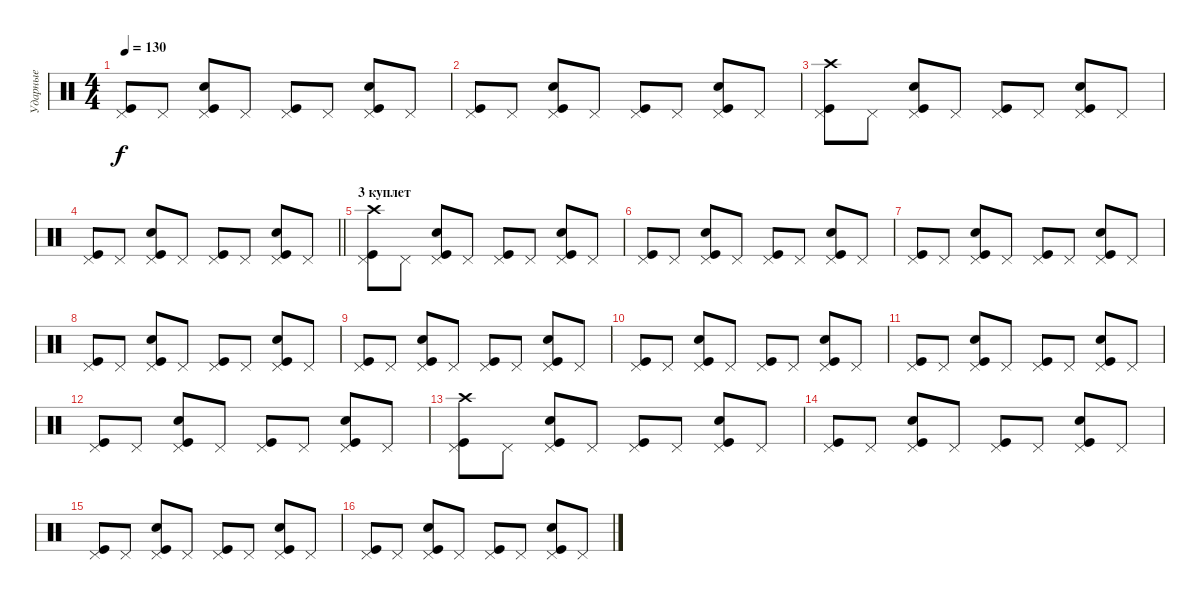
\track ("Ударные" "Ударные") {instrument percussion}
\staff {score}
\articulation defaults
\ts (4 4)
\tempo 130
\clef neutral
\ks c
("Pedal Hi-Hat (hit)" "Kick (hit)").8{dy f} "Pedal Hi-Hat (hit)".8 ("Pedal Hi-Hat (hit)" "Kick (hit)" "Snare (hit) 2").8 "Pedal Hi-Hat (hit)".8 ("Pedal Hi-Hat (hit)" "Kick (hit)").8 "Pedal Hi-Hat (hit)".8 ("Pedal Hi-Hat (hit)" "Kick (hit)" "Snare (hit) 2").8 "Pedal Hi-Hat (hit)".8 |
("Pedal Hi-Hat (hit)" "Kick (hit)").8 "Pedal Hi-Hat (hit)".8 ("Pedal Hi-Hat (hit)" "Kick (hit)" "Snare (hit) 2").8 "Pedal Hi-Hat (hit)".8 ("Pedal Hi-Hat (hit)" "Kick (hit)").8 "Pedal Hi-Hat (hit)".8 ("Pedal Hi-Hat (hit)" "Kick (hit)" "Snare (hit) 2").8 "Pedal Hi-Hat (hit)".8 |
("Pedal Hi-Hat (hit)" "Kick (hit)" "Crash high (hit)").8 "Pedal Hi-Hat (hit)".8 ("Pedal Hi-Hat (hit)" "Kick (hit)" "Snare (hit) 2").8 "Pedal Hi-Hat (hit)".8 ("Pedal Hi-Hat (hit)" "Kick (hit)").8 "Pedal Hi-Hat (hit)".8 ("Pedal Hi-Hat (hit)" "Kick (hit)" "Snare (hit) 2").8 "Pedal Hi-Hat (hit)".8 |
\barLineRight lightlight
("Pedal Hi-Hat (hit)" "Kick (hit)").8 "Pedal Hi-Hat (hit)".8 ("Pedal Hi-Hat (hit)" "Kick (hit)" "Snare (hit) 2").8 "Pedal Hi-Hat (hit)".8 ("Pedal Hi-Hat (hit)" "Kick (hit)").8 "Pedal Hi-Hat (hit)".8 ("Pedal Hi-Hat (hit)" "Kick (hit)" "Snare (hit) 2").8 "Pedal Hi-Hat (hit)".8 |
\section ("" "3 куплет")
("Pedal Hi-Hat (hit)" "Kick (hit)" "Crash high (hit)").8 "Pedal Hi-Hat (hit)".8 ("Pedal Hi-Hat (hit)" "Kick (hit)" "Snare (hit) 2").8 "Pedal Hi-Hat (hit)".8 ("Pedal Hi-Hat (hit)" "Kick (hit)").8 "Pedal Hi-Hat (hit)".8 ("Pedal Hi-Hat (hit)" "Kick (hit)" "Snare (hit) 2").8 "Pedal Hi-Hat (hit)".8 |
("Pedal Hi-Hat (hit)" "Kick (hit)").8 "Pedal Hi-Hat (hit)".8 ("Pedal Hi-Hat (hit)" "Kick (hit)" "Snare (hit) 2").8 "Pedal Hi-Hat (hit)".8 ("Pedal Hi-Hat (hit)" "Kick (hit)").8 "Pedal Hi-Hat (hit)".8 ("Pedal Hi-Hat (hit)" "Kick (hit)" "Snare (hit) 2").8 "Pedal Hi-Hat (hit)".8 |
("Pedal Hi-Hat (hit)" "Kick (hit)").8 "Pedal Hi-Hat (hit)".8 ("Pedal Hi-Hat (hit)" "Kick (hit)" "Snare (hit) 2").8 "Pedal Hi-Hat (hit)".8 ("Pedal Hi-Hat (hit)" "Kick (hit)").8 "Pedal Hi-Hat (hit)".8 ("Pedal Hi-Hat (hit)" "Kick (hit)" "Snare (hit) 2").8 "Pedal Hi-Hat (hit)".8 |
("Pedal Hi-Hat (hit)" "Kick (hit)").8 "Pedal Hi-Hat (hit)".8 ("Pedal Hi-Hat (hit)" "Kick (hit)" "Snare (hit) 2").8 "Pedal Hi-Hat (hit)".8 ("Pedal Hi-Hat (hit)" "Kick (hit)").8 "Pedal Hi-Hat (hit)".8 ("Pedal Hi-Hat (hit)" "Kick (hit)" "Snare (hit) 2").8 "Pedal Hi-Hat (hit)".8 |
("Pedal Hi-Hat (hit)" "Kick (hit)").8 "Pedal Hi-Hat (hit)".8 ("Pedal Hi-Hat (hit)" "Kick (hit)" "Snare (hit) 2").8 "Pedal Hi-Hat (hit)".8 ("Pedal Hi-Hat (hit)" "Kick (hit)").8 "Pedal Hi-Hat (hit)".8 ("Pedal Hi-Hat (hit)" "Kick (hit)" "Snare (hit) 2").8 "Pedal Hi-Hat (hit)".8 |
("Pedal Hi-Hat (hit)" "Kick (hit)").8 "Pedal Hi-Hat (hit)".8 ("Pedal Hi-Hat (hit)" "Kick (hit)" "Snare (hit) 2").8 "Pedal Hi-Hat (hit)".8 ("Pedal Hi-Hat (hit)" "Kick (hit)").8 "Pedal Hi-Hat (hit)".8 ("Pedal Hi-Hat (hit)" "Kick (hit)" "Snare (hit) 2").8 "Pedal Hi-Hat (hit)".8 |
("Pedal Hi-Hat (hit)" "Kick (hit)").8 "Pedal Hi-Hat (hit)".8 ("Pedal Hi-Hat (hit)" "Kick (hit)" "Snare (hit) 2").8 "Pedal Hi-Hat (hit)".8 ("Pedal Hi-Hat (hit)" "Kick (hit)").8 "Pedal Hi-Hat (hit)".8 ("Pedal Hi-Hat (hit)" "Kick (hit)" "Snare (hit) 2").8 "Pedal Hi-Hat (hit)".8 |
("Pedal Hi-Hat (hit)" "Kick (hit)").8 "Pedal Hi-Hat (hit)".8 ("Pedal Hi-Hat (hit)" "Kick (hit)" "Snare (hit) 2").8 "Pedal Hi-Hat (hit)".8 ("Pedal Hi-Hat (hit)" "Kick (hit)").8 "Pedal Hi-Hat (hit)".8 ("Pedal Hi-Hat (hit)" "Kick (hit)" "Snare (hit) 2").8 "Pedal Hi-Hat (hit)".8 |
("Pedal Hi-Hat (hit)" "Kick (hit)" "Crash high (hit)").8 "Pedal Hi-Hat (hit)".8 ("Pedal Hi-Hat (hit)" "Kick (hit)" "Snare (hit) 2").8 "Pedal Hi-Hat (hit)".8 ("Pedal Hi-Hat (hit)" "Kick (hit)").8 "Pedal Hi-Hat (hit)".8 ("Pedal Hi-Hat (hit)" "Kick (hit)" "Snare (hit) 2").8 "Pedal Hi-Hat (hit)".8 |
("Pedal Hi-Hat (hit)" "Kick (hit)").8 "Pedal Hi-Hat (hit)".8 ("Pedal Hi-Hat (hit)" "Kick (hit)" "Snare (hit) 2").8 "Pedal Hi-Hat (hit)".8 ("Pedal Hi-Hat (hit)" "Kick (hit)").8 "Pedal Hi-Hat (hit)".8 ("Pedal Hi-Hat (hit)" "Kick (hit)" "Snare (hit) 2").8 "Pedal Hi-Hat (hit)".8 |
("Pedal Hi-Hat (hit)" "Kick (hit)").8 "Pedal Hi-Hat (hit)".8 ("Pedal Hi-Hat (hit)" "Kick (hit)" "Snare (hit) 2").8 "Pedal Hi-Hat (hit)".8 ("Pedal Hi-Hat (hit)" "Kick (hit)").8 "Pedal Hi-Hat (hit)".8 ("Pedal Hi-Hat (hit)" "Kick (hit)" "Snare (hit) 2").8 "Pedal Hi-Hat (hit)".8 |
("Pedal Hi-Hat (hit)" "Kick (hit)").8 "Pedal Hi-Hat (hit)".8 ("Pedal Hi-Hat (hit)" "Kick (hit)" "Snare (hit) 2").8 "Pedal Hi-Hat (hit)".8 ("Pedal Hi-Hat (hit)" "Kick (hit)").8 "Pedal Hi-Hat (hit)".8 ("Pedal Hi-Hat (hit)" "Kick (hit)" "Snare (hit) 2").8 "Pedal Hi-Hat (hit)".8
